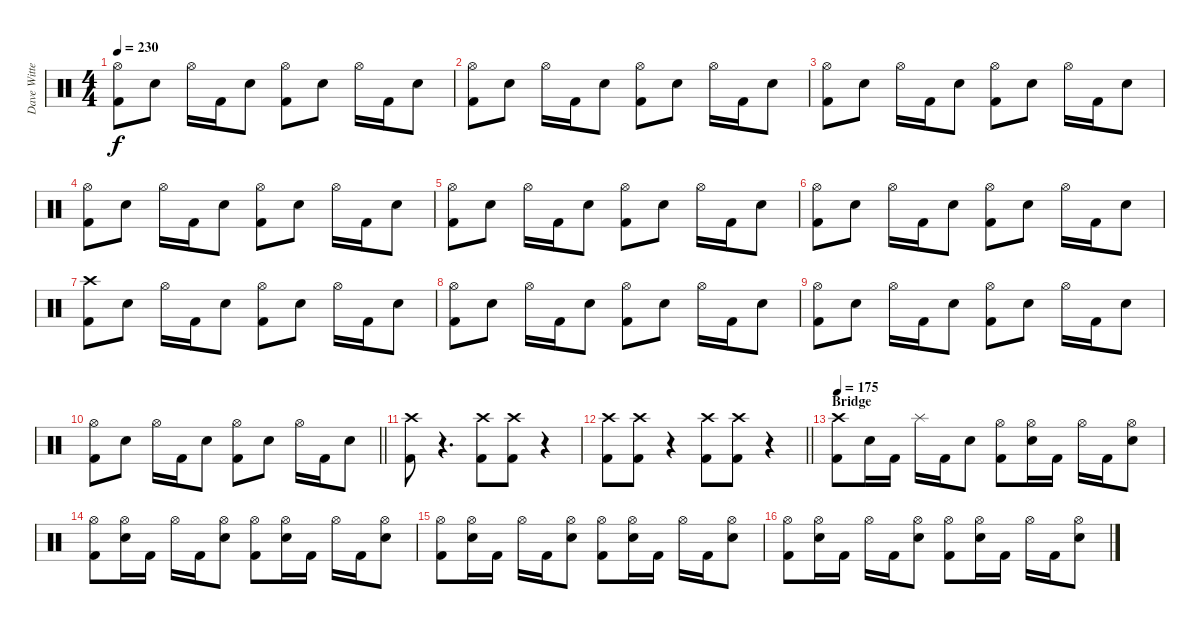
\track ("Dave Witte" "Dave Witte") {instrument percussion}
\staff {score}
\articulation defaults
\ts (4 4)
\tempo 230
\clef neutral
\ks c
("Hi-Hat (open)" "Kick (hit) 2").8{dy f} "Electric Snare (hit)".8 "Hi-Hat (open)".16 "Kick (hit) 2".16 "Electric Snare (hit)".8 ("Hi-Hat (open)" "Kick (hit) 2").8 "Electric Snare (hit)".8 "Hi-Hat (open)".16 "Kick (hit) 2".16 "Electric Snare (hit)".8 |
("Hi-Hat (open)" "Kick (hit) 2").8 "Electric Snare (hit)".8 "Hi-Hat (open)".16 "Kick (hit) 2".16 "Electric Snare (hit)".8 ("Hi-Hat (open)" "Kick (hit) 2").8 "Electric Snare (hit)".8 "Hi-Hat (open)".16 "Kick (hit) 2".16 "Electric Snare (hit)".8 |
("Hi-Hat (open)" "Kick (hit) 2").8 "Electric Snare (hit)".8 "Hi-Hat (open)".16 "Kick (hit) 2".16 "Electric Snare (hit)".8 ("Hi-Hat (open)" "Kick (hit) 2").8 "Electric Snare (hit)".8 "Hi-Hat (open)".16 "Kick (hit) 2".16 "Electric Snare (hit)".8 |
("Hi-Hat (open)" "Kick (hit) 2").8 "Electric Snare (hit)".8 "Hi-Hat (open)".16 "Kick (hit) 2".16 "Electric Snare (hit)".8 ("Hi-Hat (open)" "Kick (hit) 2").8 "Electric Snare (hit)".8 "Hi-Hat (open)".16 "Kick (hit) 2".16 "Electric Snare (hit)".8 |
("Hi-Hat (open)" "Kick (hit) 2").8 "Electric Snare (hit)".8 "Hi-Hat (open)".16 "Kick (hit) 2".16 "Electric Snare (hit)".8 ("Hi-Hat (open)" "Kick (hit) 2").8 "Electric Snare (hit)".8 "Hi-Hat (open)".16 "Kick (hit) 2".16 "Electric Snare (hit)".8 |
("Hi-Hat (open)" "Kick (hit) 2").8 "Electric Snare (hit)".8 "Hi-Hat (open)".16 "Kick (hit) 2".16 "Electric Snare (hit)".8 ("Hi-Hat (open)" "Kick (hit) 2").8 "Electric Snare (hit)".8 "Hi-Hat (open)".16 "Kick (hit) 2".16 "Electric Snare (hit)".8 |
("Crash high (hit)" "Kick (hit) 2").8 "Electric Snare (hit)".8 "Hi-Hat (open)".16 "Kick (hit) 2".16 "Electric Snare (hit)".8 ("Hi-Hat (open)" "Kick (hit) 2").8 "Electric Snare (hit)".8 "Hi-Hat (open)".16 "Kick (hit) 2".16 "Electric Snare (hit)".8 |
("Hi-Hat (open)" "Kick (hit) 2").8 "Electric Snare (hit)".8 "Hi-Hat (open)".16 "Kick (hit) 2".16 "Electric Snare (hit)".8 ("Hi-Hat (open)" "Kick (hit) 2").8 "Electric Snare (hit)".8 "Hi-Hat (open)".16 "Kick (hit) 2".16 "Electric Snare (hit)".8 |
("Hi-Hat (open)" "Kick (hit) 2").8 "Electric Snare (hit)".8 "Hi-Hat (open)".16 "Kick (hit) 2".16 "Electric Snare (hit)".8 ("Hi-Hat (open)" "Kick (hit) 2").8 "Electric Snare (hit)".8 "Hi-Hat (open)".16 "Kick (hit) 2".16 "Electric Snare (hit)".8 |
\barLineRight lightlight
("Hi-Hat (open)" "Kick (hit) 2").8 "Electric Snare (hit)".8 "Hi-Hat (open)".16 "Kick (hit) 2".16 "Electric Snare (hit)".8 ("Hi-Hat (open)" "Kick (hit) 2").8 "Electric Snare (hit)".8 "Hi-Hat (open)".16 "Kick (hit) 2".16 "Electric Snare (hit)".8 |
("Crash high (hit)" "Kick (hit) 2").8 r.4{d volume 0} ("Crash high (hit)" "Kick (hit) 2").8{volume 14} ("Crash high (hit)" "Kick (hit) 2").8 r.4{volume 0} |
\barLineRight lightlight
("Crash high (hit)" "Kick (hit) 2").8{volume 14} ("Crash high (hit)" "Kick (hit) 2").8 r.4{volume 0} ("Crash high (hit)" "Kick (hit) 2").8{volume 14} ("Crash high (hit)" "Kick (hit) 2").8 r.4{volume 0} |
\section ("" "Bridge")
\tempo 175
("Crash high (hit)" "Kick (hit) 2").8{volume 14} "Electric Snare (hit)".16 "Kick (hit) 2".16 "Splash (hit)".16 "Kick (hit) 2".16 "Electric Snare (hit)".8 ("Hi-Hat (open)" "Kick (hit) 2").8 ("Hi-Hat (open)" "Electric Snare (hit)").16 "Kick (hit) 2".16 "Hi-Hat (open)".16 "Kick (hit) 2".16 ("Hi-Hat (open)" "Electric Snare (hit)").8 |
("Hi-Hat (open)" "Kick (hit) 2").8 ("Hi-Hat (open)" "Electric Snare (hit)").16 "Kick (hit) 2".16 "Hi-Hat (open)".16 "Kick (hit) 2".16 ("Hi-Hat (open)" "Electric Snare (hit)").8 ("Hi-Hat (open)" "Kick (hit) 2").8 ("Hi-Hat (open)" "Electric Snare (hit)").16 "Kick (hit) 2".16 "Hi-Hat (open)".16 "Kick (hit) 2".16 ("Hi-Hat (open)" "Electric Snare (hit)").8 |
("Hi-Hat (open)" "Kick (hit) 2").8 ("Hi-Hat (open)" "Electric Snare (hit)").16 "Kick (hit) 2".16 "Hi-Hat (open)".16 "Kick (hit) 2".16 ("Hi-Hat (open)" "Electric Snare (hit)").8 ("Hi-Hat (open)" "Kick (hit) 2").8 ("Hi-Hat (open)" "Electric Snare (hit)").16 "Kick (hit) 2".16 "Hi-Hat (open)".16 "Kick (hit) 2".16 ("Hi-Hat (open)" "Electric Snare (hit)").8 |
("Hi-Hat (open)" "Kick (hit) 2").8 ("Hi-Hat (open)" "Electric Snare (hit)").16 "Kick (hit) 2".16 "Hi-Hat (open)".16 "Kick (hit) 2".16 ("Hi-Hat (open)" "Electric Snare (hit)").8 ("Hi-Hat (open)" "Kick (hit) 2").8 ("Hi-Hat (open)" "Electric Snare (hit)").16 "Kick (hit) 2".16 "Hi-Hat (open)".16 "Kick (hit) 2".16 ("Hi-Hat (open)" "Electric Snare (hit)").8
